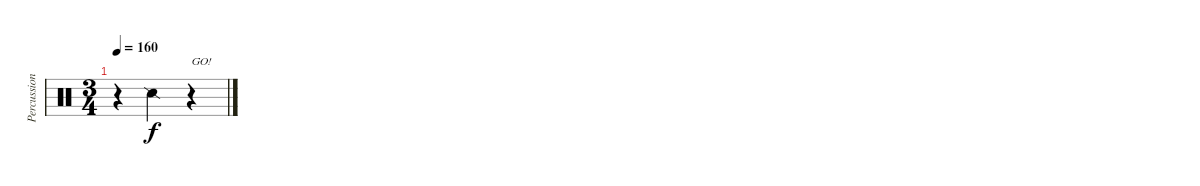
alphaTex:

\track ("Percussion" "Percussion") {instrument percussion}
\staff {score}
\articulation defaults
\ts (3 4)
\tempo 160
\clef neutral
\ks c
r.4{dy f} "Snare (side stick) 2".4 r.4{txt "GO!"}
